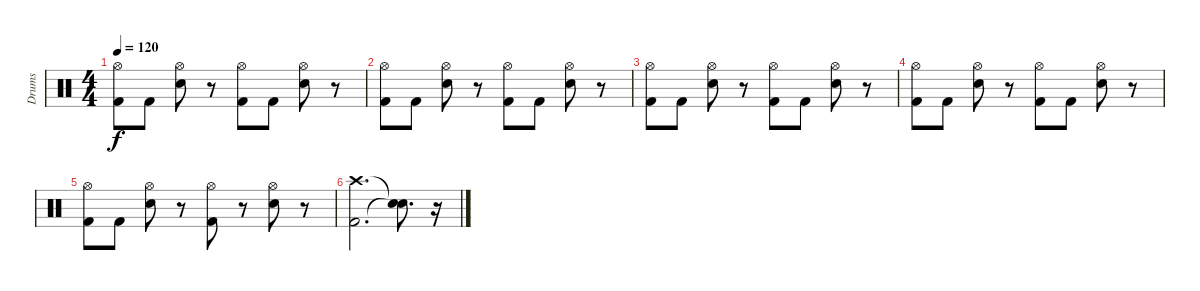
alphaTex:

\track ("Drums" "Drums") {instrument percussion}
\staff {score}
\articulation defaults
\ts (4 4)
\tempo 120
\clef neutral
\ks c
("Kick (hit) 2" "Hi-Hat (open)").8{dy f} "Kick (hit) 2".8 ("Snare (hit) 2" "Hi-Hat (open)").8 r.8 ("Kick (hit) 2" "Hi-Hat (open)").8 "Kick (hit) 2".8 ("Snare (hit) 2" "Hi-Hat (open)").8 r.8 |
("Kick (hit) 2" "Hi-Hat (open)").8 "Kick (hit) 2".8 ("Snare (hit) 2" "Hi-Hat (open)").8 r.8 ("Kick (hit) 2" "Hi-Hat (open)").8 "Kick (hit) 2".8 ("Snare (hit) 2" "Hi-Hat (open)").8 r.8 |
("Kick (hit) 2" "Hi-Hat (open)").8 "Kick (hit) 2".8 ("Snare (hit) 2" "Hi-Hat (open)").8 r.8 ("Kick (hit) 2" "Hi-Hat (open)").8 "Kick (hit) 2".8 ("Snare (hit) 2" "Hi-Hat (open)").8 r.8 |
("Kick (hit) 2" "Hi-Hat (open)").8 "Kick (hit) 2".8 ("Snare (hit) 2" "Hi-Hat (open)").8 r.8 ("Kick (hit) 2" "Hi-Hat (open)").8 "Kick (hit) 2".8 ("Snare (hit) 2" "Hi-Hat (open)").8 r.8 |
("Kick (hit) 2" "Hi-Hat (open)").8 "Kick (hit) 2".8 ("Snare (hit) 2" "Hi-Hat (open)").8 r.8 ("Kick (hit) 2" "Hi-Hat (open)").8 r.8 ("Snare (hit) 2" "Hi-Hat (open)").8 r.8 |
("Kick (hit) 2" "Crash high (hit)").2{d} ("Snare (hit)"{t} "Snare (hit)"{t}).8{d} r.16
